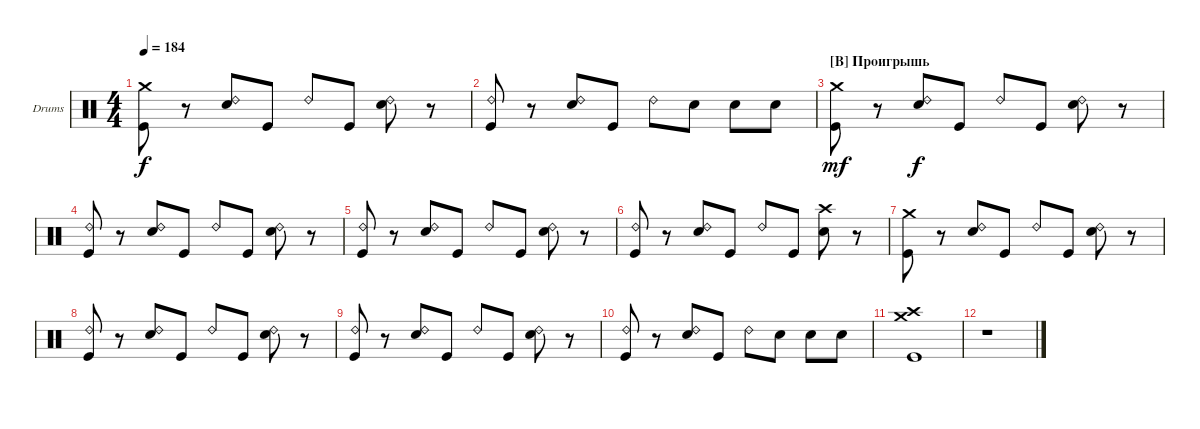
\bracketExtendMode groupsimilarinstruments
\firstSystemTrackNameOrientation horizontal
\otherSystemsTrackNameOrientation horizontal
\track ("Drumkit" "Drums") {instrument percussion}
\staff {score}
\articulation defaults
\ts (4 4)
\tempo 184
\clef neutral
\ks c
("Crash medium (hit)" "Kick (hit)").8{dy f} r.8 ("Ride (bell) 2" "Snare (hit) 2").8 "Kick (hit)".8 "Ride (bell) 2".8 "Kick (hit)".8 ("Ride (bell) 2" "Snare (hit) 2").8 r.8 |
("Ride (bell) 2" "Kick (hit)").8 r.8 ("Ride (bell) 2" "Snare (hit) 2").8 "Kick (hit)".8 "Ride (bell) 2".8 "Snare (hit) 2".8 "Snare (hit) 2".8 "Snare (hit) 2".8 |
\section ("B" "Проигрышь")
("Crash medium (hit)" "Kick (hit)").8{dy mf} r.8 ("Ride (bell) 2" "Snare (hit) 2").8{dy f} "Kick (hit)".8 "Ride (bell) 2".8 "Kick (hit)".8 ("Ride (bell) 2" "Snare (hit) 2").8 r.8 |
("Ride (bell) 2" "Kick (hit)").8 r.8 ("Ride (bell) 2" "Snare (hit) 2").8 "Kick (hit)".8 "Ride (bell) 2".8 "Kick (hit)".8 ("Ride (bell) 2" "Snare (hit) 2").8 r.8 |
("Ride (bell) 2" "Kick (hit)").8 r.8 ("Ride (bell) 2" "Snare (hit) 2").8 "Kick (hit)".8 "Ride (bell) 2".8 "Kick (hit)".8 ("Ride (bell) 2" "Snare (hit) 2").8 r.8 |
("Ride (bell) 2" "Kick (hit)").8 r.8 ("Ride (bell) 2" "Snare (hit) 2").8 "Kick (hit)".8 "Ride (bell) 2".8 "Kick (hit)".8 ("Crash high (hit)" "Snare (hit) 2").8 r.8 |
("Crash medium (hit)" "Kick (hit)").8 r.8 ("Ride (bell) 2" "Snare (hit) 2").8 "Kick (hit)".8 "Ride (bell) 2".8 "Kick (hit)".8 ("Ride (bell) 2" "Snare (hit) 2").8 r.8 |
("Ride (bell) 2" "Kick (hit)").8 r.8 ("Ride (bell) 2" "Snare (hit) 2").8 "Kick (hit)".8 "Ride (bell) 2".8 "Kick (hit)".8 ("Ride (bell) 2" "Snare (hit) 2").8 r.8 |
("Ride (bell) 2" "Kick (hit)").8 r.8 ("Ride (bell) 2" "Snare (hit) 2").8 "Kick (hit)".8 "Ride (bell) 2".8 "Kick (hit)".8 ("Ride (bell) 2" "Snare (hit) 2").8 r.8 |
("Ride (bell) 2" "Kick (hit)").8 r.8 ("Ride (bell) 2" "Snare (hit) 2").8 "Kick (hit)".8 "Ride (bell) 2".8 "Snare (hit) 2".8 "Snare (hit) 2".8 "Snare (hit) 2".8 |
("Crash medium (hit)" "Crash high (hit)" "Kick (hit)").1 |
r.1
